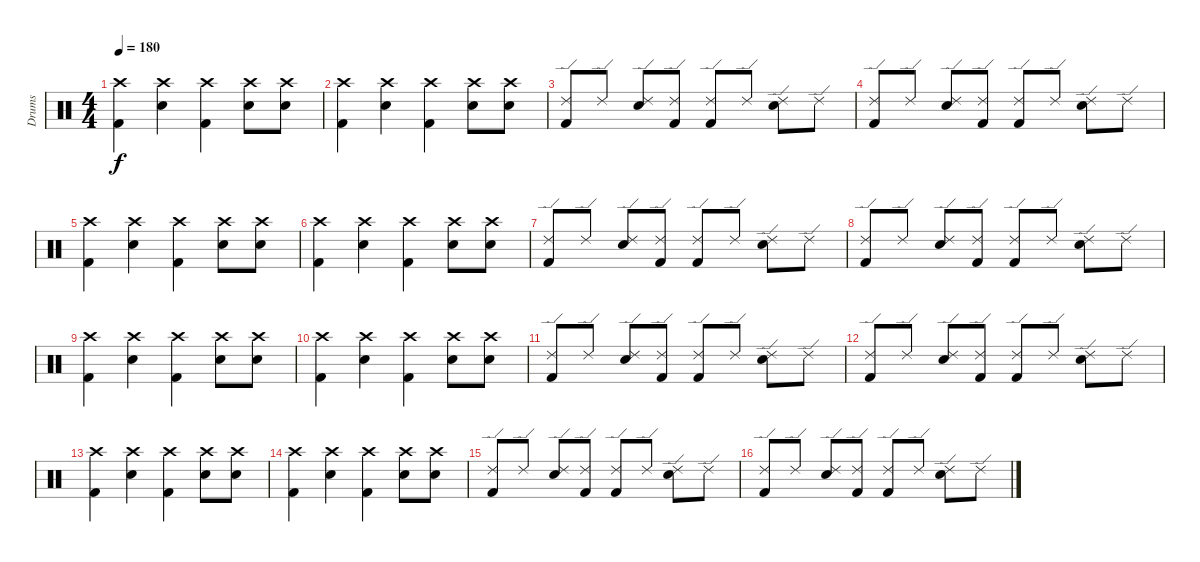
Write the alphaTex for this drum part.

\track ("Drums" "Drums") {instrument percussion}
\staff {score}
\articulation defaults
\ts (4 4)
\tempo 180
\clef neutral
\ks c
("Crash high (hit)" "Kick (hit) 2").4{dy f} ("Crash high (hit)" "Electric Snare (hit)").4 ("Crash high (hit)" "Kick (hit) 2").4 ("Crash high (hit)" "Electric Snare (hit)").8 ("Crash high (hit)" "Electric Snare (hit)").8 |
("Crash high (hit)" "Kick (hit) 2").4 ("Crash high (hit)" "Electric Snare (hit)").4 ("Crash high (hit)" "Kick (hit) 2").4 ("Crash high (hit)" "Electric Snare (hit)").8 ("Crash high (hit)" "Electric Snare (hit)").8 |
("Ride (edge) 2" "Kick (hit) 2").8 "Ride (edge) 2".8 ("Ride (edge) 2" "Electric Snare (hit)").8 ("Ride (edge) 2" "Kick (hit) 2").8 ("Ride (edge) 2" "Kick (hit) 2").8 "Ride (edge) 2".8 ("Ride (edge) 2" "Electric Snare (hit)").8 "Ride (edge) 2".8 |
("Ride (edge) 2" "Kick (hit) 2").8 "Ride (edge) 2".8 ("Ride (edge) 2" "Electric Snare (hit)").8 ("Ride (edge) 2" "Kick (hit) 2").8 ("Ride (edge) 2" "Kick (hit) 2").8 "Ride (edge) 2".8 ("Ride (edge) 2" "Electric Snare (hit)").8 "Ride (edge) 2".8 |
("Crash high (hit)" "Kick (hit) 2").4 ("Crash high (hit)" "Electric Snare (hit)").4 ("Crash high (hit)" "Kick (hit) 2").4 ("Crash high (hit)" "Electric Snare (hit)").8 ("Crash high (hit)" "Electric Snare (hit)").8 |
("Crash high (hit)" "Kick (hit) 2").4 ("Crash high (hit)" "Electric Snare (hit)").4 ("Crash high (hit)" "Kick (hit) 2").4 ("Crash high (hit)" "Electric Snare (hit)").8 ("Crash high (hit)" "Electric Snare (hit)").8 |
("Ride (edge) 2" "Kick (hit) 2").8 "Ride (edge) 2".8 ("Ride (edge) 2" "Electric Snare (hit)").8 ("Ride (edge) 2" "Kick (hit) 2").8 ("Ride (edge) 2" "Kick (hit) 2").8 "Ride (edge) 2".8 ("Ride (edge) 2" "Electric Snare (hit)").8 "Ride (edge) 2".8 |
("Ride (edge) 2" "Kick (hit) 2").8 "Ride (edge) 2".8 ("Ride (edge) 2" "Electric Snare (hit)").8 ("Ride (edge) 2" "Kick (hit) 2").8 ("Ride (edge) 2" "Kick (hit) 2").8 "Ride (edge) 2".8 ("Ride (edge) 2" "Electric Snare (hit)").8 "Ride (edge) 2".8 |
("Crash high (hit)" "Kick (hit) 2").4 ("Crash high (hit)" "Electric Snare (hit)").4 ("Crash high (hit)" "Kick (hit) 2").4 ("Crash high (hit)" "Electric Snare (hit)").8 ("Crash high (hit)" "Electric Snare (hit)").8 |
("Crash high (hit)" "Kick (hit) 2").4 ("Crash high (hit)" "Electric Snare (hit)").4 ("Crash high (hit)" "Kick (hit) 2").4 ("Crash high (hit)" "Electric Snare (hit)").8 ("Crash high (hit)" "Electric Snare (hit)").8 |
("Ride (edge) 2" "Kick (hit) 2").8 "Ride (edge) 2".8 ("Ride (edge) 2" "Electric Snare (hit)").8 ("Ride (edge) 2" "Kick (hit) 2").8 ("Ride (edge) 2" "Kick (hit) 2").8 "Ride (edge) 2".8 ("Ride (edge) 2" "Electric Snare (hit)").8 "Ride (edge) 2".8 |
("Ride (edge) 2" "Kick (hit) 2").8 "Ride (edge) 2".8 ("Ride (edge) 2" "Electric Snare (hit)").8 ("Ride (edge) 2" "Kick (hit) 2").8 ("Ride (edge) 2" "Kick (hit) 2").8 "Ride (edge) 2".8 ("Ride (edge) 2" "Electric Snare (hit)").8 "Ride (edge) 2".8 |
("Crash high (hit)" "Kick (hit) 2").4 ("Crash high (hit)" "Electric Snare (hit)").4 ("Crash high (hit)" "Kick (hit) 2").4 ("Crash high (hit)" "Electric Snare (hit)").8 ("Crash high (hit)" "Electric Snare (hit)").8 |
("Crash high (hit)" "Kick (hit) 2").4 ("Crash high (hit)" "Electric Snare (hit)").4 ("Crash high (hit)" "Kick (hit) 2").4 ("Crash high (hit)" "Electric Snare (hit)").8 ("Crash high (hit)" "Electric Snare (hit)").8 |
("Ride (edge) 2" "Kick (hit) 2").8 "Ride (edge) 2".8 ("Ride (edge) 2" "Electric Snare (hit)").8 ("Ride (edge) 2" "Kick (hit) 2").8 ("Ride (edge) 2" "Kick (hit) 2").8 "Ride (edge) 2".8 ("Ride (edge) 2" "Electric Snare (hit)").8 "Ride (edge) 2".8 |
("Ride (edge) 2" "Kick (hit) 2").8 "Ride (edge) 2".8 ("Ride (edge) 2" "Electric Snare (hit)").8 ("Ride (edge) 2" "Kick (hit) 2").8 ("Ride (edge) 2" "Kick (hit) 2").8 "Ride (edge) 2".8 ("Ride (edge) 2" "Electric Snare (hit)").8 "Ride (edge) 2".8
